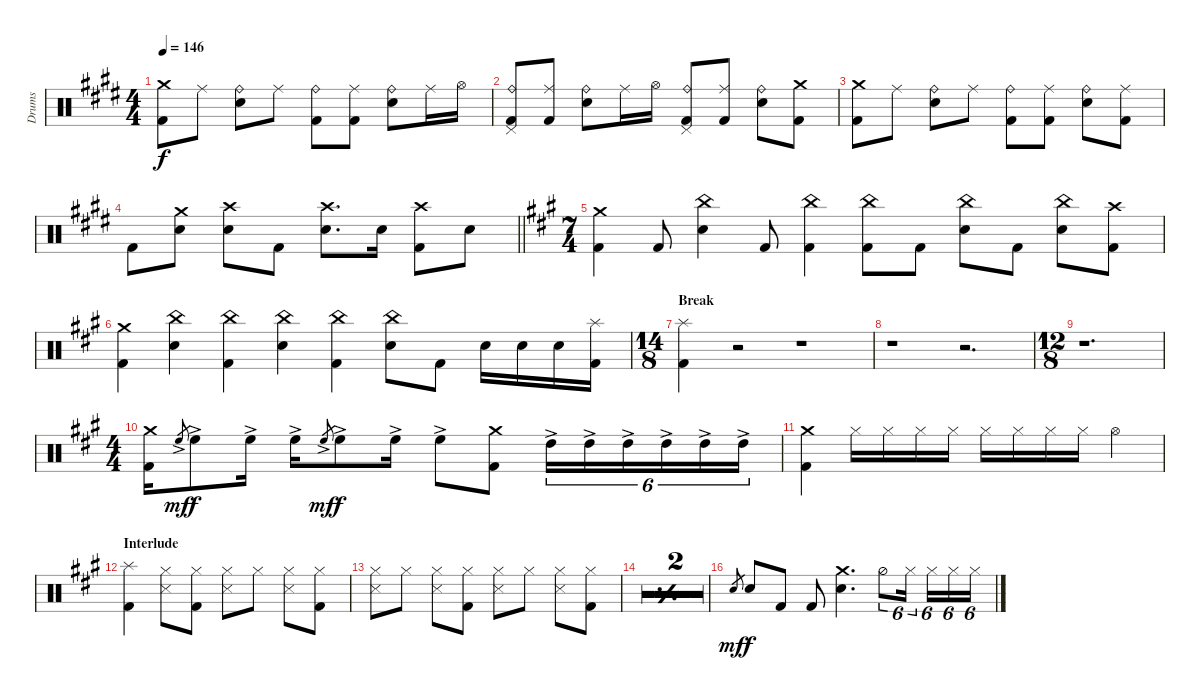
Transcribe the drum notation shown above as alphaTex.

\defaultSystemsLayout 4
\bracketExtendMode groupsimilarinstruments
\otherSystemsTrackNameOrientation horizontal
\track ("Drumkit" "Drums") {multiBarRest instrument percussion}
\staff {score}
\articulation defaults
\ts (4 4)
\tempo 146
\clef neutral
\ks e
("Crash medium (hit)"{acc forcenatural} "Kick (hit) 2"{acc forcenatural}).8{dy f} "Ride (middle)"{acc forcenatural}.8 ("Ride (bell)"{acc forcenatural} "Snare (hit) 2"{acc forcenatural}).8 "Ride (middle)"{acc forcenatural}.8 ("Ride (bell)"{acc forcenatural} "Kick (hit) 2"{acc forcenatural}).8 ("Kick (hit) 2"{acc forcenatural} "Ride (middle)"{acc forcenatural}).8 ("Ride (bell)"{acc forcenatural} "Snare (hit) 2"{acc forcenatural}).8 "Ride (middle)"{acc forcenatural}.16 "Hi-Hat (open)"{acc forcenatural}.16 |
("Ride (bell)"{acc forcenatural} "Pedal Hi-Hat (hit)"{acc forcenatural} "Kick (hit) 2"{acc forcenatural}).8 ("Kick (hit) 2"{acc forcenatural} "Ride (middle)"{acc forcenatural}).8 ("Ride (bell)"{acc forcenatural} "Snare (hit) 2"{acc forcenatural}).8 "Ride (middle)"{acc forcenatural}.16 "Hi-Hat (open)"{acc forcenatural}.16 ("Ride (bell)"{acc forcenatural} "Pedal Hi-Hat (hit)"{acc forcenatural} "Kick (hit) 2"{acc forcenatural}).8 ("Kick (hit) 2"{acc forcenatural} "Ride (middle)"{acc forcenatural}).8 ("Ride (bell)"{acc forcenatural} "Snare (hit) 2"{acc forcenatural}).8 ("Crash medium (hit)"{acc forcenatural} "Kick (hit) 2"{acc forcenatural}).8 |
("Crash medium (hit)"{acc forcenatural} "Kick (hit) 2"{acc forcenatural}).8 "Ride (middle)"{acc forcenatural}.8 ("Ride (bell)"{acc forcenatural} "Snare (hit) 2"{acc forcenatural}).8 "Ride (middle)"{acc forcenatural}.8 ("Ride (bell)"{acc forcenatural} "Kick (hit) 2"{acc forcenatural}).8 ("Kick (hit) 2"{acc forcenatural} "Ride (middle)"{acc forcenatural}).8 ("Ride (bell)"{acc forcenatural} "Snare (hit) 2"{acc forcenatural}).8 ("Kick (hit) 2"{acc forcenatural} "Ride (middle)"{acc forcenatural}).8 |
\barLineRight lightlight "Kick (hit) 2"{acc forcenatural}.8
("Snare (hit) 2"{acc forcenatural} "Crash medium (hit)"{acc forcenatural}).8 ("Snare (hit) 2"{acc forcenatural} "Crash high (hit)"{acc forcenatural}).8 "Kick (hit) 2"{acc forcenatural}.8 ("Snare (hit) 2"{acc forcenatural} "Crash high (hit)"{acc forcenatural}).8{d} "Snare (hit) 2"{acc forcenatural}.16 ("Kick (hit) 2"{acc forcenatural} "Crash high (hit)"{acc forcenatural}).8 "Snare (hit) 2"{acc forcenatural}.8 |
\ts (7 4)
\beaming (8 2 2 2 2 2 2 2)
\ks a
("Crash medium (hit)"{acc forcenatural} "Kick (hit) 2"{acc forcenatural}).4 "Kick (hit) 2"{acc forcenatural}.8 ("Snare (hit) 2"{acc forcenatural} "China (hit)"{acc forcenatural}).4 "Kick (hit) 2"{acc forcenatural}.8 ("Kick (hit) 2"{acc forcenatural} "China (hit)"{acc forcenatural}).4 ("Kick (hit) 2"{acc forcenatural} "China (hit)"{acc forcenatural}).8 "Kick (hit) 2"{acc forcenatural}.8 ("Snare (hit) 2"{acc forcenatural} "China (hit)"{acc forcenatural}).8 "Kick (hit) 2"{acc forcenatural}.8 ("Snare (hit) 2"{acc forcenatural} "China (hit)"{acc forcenatural}).8 ("Kick (hit) 2"{acc forcenatural} "Crash high (hit)"{acc forcenatural}).8 |
("Crash medium (hit)"{acc forcenatural} "Kick (hit) 2"{acc forcenatural}).4 ("Snare (hit) 2"{acc forcenatural} "China (hit)"{acc forcenatural}).4 ("Kick (hit) 2"{acc forcenatural} "China (hit)"{acc forcenatural}).4 ("Snare (hit) 2"{acc forcenatural} "China (hit)"{acc forcenatural}).4 ("Kick (hit) 2"{acc forcenatural} "China (hit)"{acc forcenatural}).4 ("Snare (hit) 2"{acc forcenatural} "China (hit)"{acc forcenatural}).8 "Kick (hit) 2"{acc forcenatural}.8 "Snare (hit) 2"{acc forcenatural}.16 "Snare (hit) 2"{acc forcenatural}.16 "Snare (hit) 2"{acc forcenatural}.16 ("Kick (hit) 2"{acc forcenatural} "Splash (hit)"{acc forcenatural}).16 |
\ts (14 8)
\beaming (8 3 3 4 4)
\section ("" "Break")
("Kick (hit) 2"{acc forcenatural} "Splash (hit)"{acc forcenatural}).4 r.2 r.1 |
r.1 r.2{d} |
\ts (12 8)
\beaming (8 3 3 4 4)
r.1{d} |
\ts (4 4)
\beaming (8 2 2 2 2)
("Crash medium (hit)"{acc forcenatural} "Kick (hit) 2"{acc forcenatural}).16 "High Floor Tom (hit)"{ac acc forcenatural}.8{gr dy mf} "High Floor Tom (hit)"{ac acc forcenatural}.8{dy f} "High Floor Tom (hit)"{ac acc forcenatural}.16 "High Floor Tom (hit)"{ac acc forcenatural}.16 "High Floor Tom (hit)"{ac acc forcenatural}.8{gr dy mf} "High Floor Tom (hit)"{ac acc forcenatural}.8{dy f} "High Floor Tom (hit)"{ac acc forcenatural}.16 "High Floor Tom (hit)"{ac acc forcenatural}.8 ("Crash medium (hit)"{acc forcenatural} "Kick (hit) 2"{acc forcenatural}).8 "High Tom (hit)"{ac acc forcenatural}.16{tu (6 4)} "High Tom (hit)"{ac acc forcenatural}.16{tu (6 4)} "High Tom (hit)"{ac acc forcenatural}.16{tu (6 4)} "High Tom (hit)"{ac acc forcenatural}.16{tu (6 4)} "High Tom (hit)"{ac acc forcenatural}.16{tu (6 4)} "High Tom (hit)"{ac acc forcenatural}.16{tu (6 4)} |
("Crash medium (hit)"{acc forcenatural} "Kick (hit) 2"{acc forcenatural}).4 "Hi-Hat (closed)"{acc forcenatural}.16 "Hi-Hat (closed)"{acc forcenatural}.16 "Hi-Hat (closed)"{acc forcenatural}.16 "Hi-Hat (closed)"{acc forcenatural}.16 "Hi-Hat (closed)"{acc forcenatural}.16 "Hi-Hat (closed)"{acc forcenatural}.16 "Hi-Hat (closed)"{acc forcenatural}.16 "Hi-Hat (closed)"{acc forcenatural}.16 "Hi-Hat (open)"{acc forcenatural}.4 |
\section ("" "Interlude")
("Kick (hit) 2"{acc forcenatural} "Splash (hit)"{acc forcenatural}).4 ("Hi-Hat (closed)"{acc forcenatural} "Snare (side stick) 3"{acc forcenatural}).8 ("Hi-Hat (closed)"{acc forcenatural} "Kick (hit) 2"{acc forcenatural}).8 ("Hi-Hat (closed)"{acc forcenatural} "Snare (side stick) 3"{acc forcenatural}).8 "Hi-Hat (closed)"{acc forcenatural}.8 ("Hi-Hat (closed)"{acc forcenatural} "Snare (side stick) 3"{acc forcenatural}).8 ("Hi-Hat (closed)"{acc forcenatural} "Kick (hit) 2"{acc forcenatural}).8 |
("Hi-Hat (closed)"{acc forcenatural} "Snare (side stick) 3"{acc forcenatural}).8 "Hi-Hat (closed)"{acc forcenatural}.8 ("Hi-Hat (closed)"{acc forcenatural} "Snare (side stick) 3"{acc forcenatural}).8 ("Hi-Hat (closed)"{acc forcenatural} "Kick (hit) 2"{acc forcenatural}).8 ("Hi-Hat (closed)"{acc forcenatural} "Snare (side stick) 3"{acc forcenatural}).8 "Hi-Hat (closed)"{acc forcenatural}.8 ("Hi-Hat (closed)"{acc forcenatural} "Snare (side stick) 3"{acc forcenatural}).8 ("Hi-Hat (closed)"{acc forcenatural} "Kick (hit) 2"{acc forcenatural}).8 |
\simile simple
|
|
\simile none "Snare (hit) 2"{acc forcenatural}.8{gr dy mf} "Snare (hit) 2"{acc forcenatural}.8{dy f} "Kick (hit) 2"{acc forcenatural}.8 "Kick (hit) 2"{acc forcenatural}.8
("Crash medium (hit)"{acc forcenatural} "Snare (hit) 2"{acc forcenatural}).4{d} "Hi-Hat (half)"{acc forcenatural}.8{tu (6 4)} "Hi-Hat (closed)"{acc forcenatural}.16{tu (6 4)} "Hi-Hat (closed)"{acc forcenatural}.16{tu (6 4)} "Hi-Hat (closed)"{acc forcenatural}.16{tu (6 4)} "Hi-Hat (closed)"{acc forcenatural}.16{tu (6 4)}
